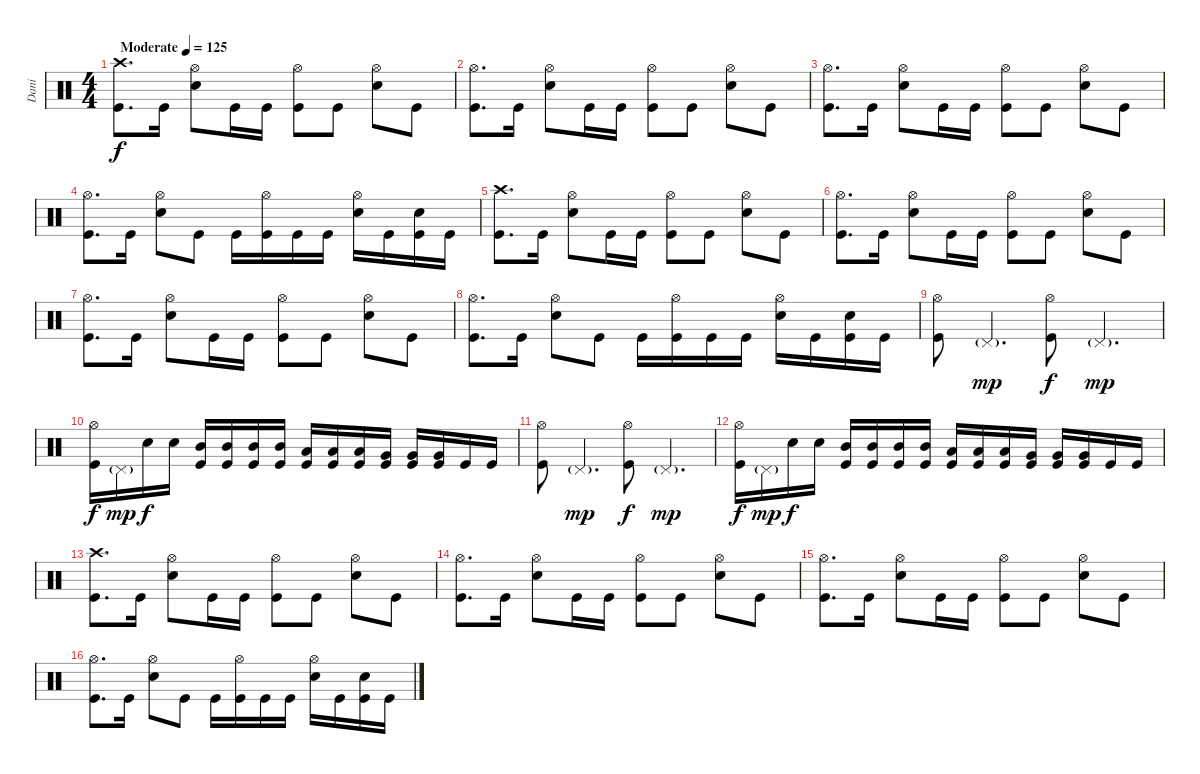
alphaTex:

\track ("Dani" "Dani") {instrument percussion}
\staff {score}
\articulation defaults
\ts (4 4)
\tempo (125 "Moderate")
\clef neutral
\ks c
("Kick (hit)" "Crash high (hit)").8{d dy f} "Kick (hit)".16 ("Snare (hit) 2" "Hi-Hat (open)").8 "Kick (hit)".16 "Kick (hit)".16 ("Kick (hit)" "Hi-Hat (open)").8 "Kick (hit)".8 ("Snare (hit) 2" "Hi-Hat (open)").8 "Kick (hit)".8 |
("Kick (hit)" "Hi-Hat (open)").8{d} "Kick (hit)".16 ("Snare (hit) 2" "Hi-Hat (open)").8 "Kick (hit)".16 "Kick (hit)".16 ("Kick (hit)" "Hi-Hat (open)").8 "Kick (hit)".8 ("Snare (hit) 2" "Hi-Hat (open)").8 "Kick (hit)".8 |
("Kick (hit)" "Hi-Hat (open)").8{d} "Kick (hit)".16 ("Snare (hit) 2" "Hi-Hat (open)").8 "Kick (hit)".16 "Kick (hit)".16 ("Kick (hit)" "Hi-Hat (open)").8 "Kick (hit)".8 ("Snare (hit) 2" "Hi-Hat (open)").8 "Kick (hit)".8 |
("Kick (hit)" "Hi-Hat (open)").8{d} "Kick (hit)".16 ("Snare (hit) 2" "Hi-Hat (open)").8 "Kick (hit)".8 "Kick (hit)".16 ("Kick (hit)" "Hi-Hat (open)").16 "Kick (hit)".16 "Kick (hit)".16 ("Snare (hit) 2" "Hi-Hat (open)").16 "Kick (hit)".16 ("Kick (hit)" "Snare (hit) 2").16 "Kick (hit)".16 |
("Kick (hit)" "Crash high (hit)").8{d} "Kick (hit)".16 ("Snare (hit) 2" "Hi-Hat (open)").8 "Kick (hit)".16 "Kick (hit)".16 ("Kick (hit)" "Hi-Hat (open)").8 "Kick (hit)".8 ("Snare (hit) 2" "Hi-Hat (open)").8 "Kick (hit)".8 |
("Kick (hit)" "Hi-Hat (open)").8{d} "Kick (hit)".16 ("Snare (hit) 2" "Hi-Hat (open)").8 "Kick (hit)".16 "Kick (hit)".16 ("Kick (hit)" "Hi-Hat (open)").8 "Kick (hit)".8 ("Snare (hit) 2" "Hi-Hat (open)").8 "Kick (hit)".8 |
("Kick (hit)" "Hi-Hat (open)").8{d} "Kick (hit)".16 ("Snare (hit) 2" "Hi-Hat (open)").8 "Kick (hit)".16 "Kick (hit)".16 ("Kick (hit)" "Hi-Hat (open)").8 "Kick (hit)".8 ("Snare (hit) 2" "Hi-Hat (open)").8 "Kick (hit)".8 |
("Kick (hit)" "Hi-Hat (open)").8{d} "Kick (hit)".16 ("Snare (hit) 2" "Hi-Hat (open)").8 "Kick (hit)".8 "Kick (hit)".16 ("Kick (hit)" "Hi-Hat (open)").16 "Kick (hit)".16 "Kick (hit)".16 ("Snare (hit) 2" "Hi-Hat (open)").16 "Kick (hit)".16 ("Kick (hit)" "Snare (hit) 2").16 "Kick (hit)".16 |
("Kick (hit)" "Hi-Hat (open)").8 "Pedal Hi-Hat (hit)"{g}.4{d dy mp} ("Kick (hit)" "Hi-Hat (open)").8{dy f} "Pedal Hi-Hat (hit)"{g}.4{d dy mp} |
("Kick (hit)" "Hi-Hat (open)").16{dy f} "Pedal Hi-Hat (hit)"{g}.16{dy mp} "Snare (hit) 2".16{dy f} "Snare (hit) 2".16 ("Mid Tom (hit)" "Kick (hit)").16 ("Mid Tom (hit)" "Kick (hit)").16 ("Mid Tom (hit)" "Kick (hit)").16 ("Mid Tom (hit)" "Kick (hit)").16 ("Low Tom (hit)" "Kick (hit)").16 ("Low Tom (hit)" "Kick (hit)").16 ("Low Tom (hit)" "Kick (hit)").16 ("Very Low Tom (hit)" "Kick (hit)").16 ("Very Low Tom (hit)" "Kick (hit)").16 ("Very Low Tom (hit)" "Kick (hit)").16 "Kick (hit)".16 "Kick (hit)".16 |
("Kick (hit)" "Hi-Hat (open)").8 "Pedal Hi-Hat (hit)"{g}.4{d dy mp} ("Kick (hit)" "Hi-Hat (open)").8{dy f} "Pedal Hi-Hat (hit)"{g}.4{d dy mp} |
("Kick (hit)" "Hi-Hat (open)").16{dy f} "Pedal Hi-Hat (hit)"{g}.16{dy mp} "Snare (hit) 2".16{dy f} "Snare (hit) 2".16 ("Mid Tom (hit)" "Kick (hit)").16 ("Mid Tom (hit)" "Kick (hit)").16 ("Mid Tom (hit)" "Kick (hit)").16 ("Mid Tom (hit)" "Kick (hit)").16 ("Low Tom (hit)" "Kick (hit)").16 ("Low Tom (hit)" "Kick (hit)").16 ("Low Tom (hit)" "Kick (hit)").16 ("Very Low Tom (hit)" "Kick (hit)").16 ("Very Low Tom (hit)" "Kick (hit)").16 ("Very Low Tom (hit)" "Kick (hit)").16 "Kick (hit)".16 "Kick (hit)".16 |
("Kick (hit)" "Crash high (hit)").8{d} "Kick (hit)".16 ("Snare (hit) 2" "Hi-Hat (open)").8 "Kick (hit)".16 "Kick (hit)".16 ("Kick (hit)" "Hi-Hat (open)").8 "Kick (hit)".8 ("Snare (hit) 2" "Hi-Hat (open)").8 "Kick (hit)".8 |
("Kick (hit)" "Hi-Hat (open)").8{d} "Kick (hit)".16 ("Snare (hit) 2" "Hi-Hat (open)").8 "Kick (hit)".16 "Kick (hit)".16 ("Kick (hit)" "Hi-Hat (open)").8 "Kick (hit)".8 ("Snare (hit) 2" "Hi-Hat (open)").8 "Kick (hit)".8 |
("Kick (hit)" "Hi-Hat (open)").8{d} "Kick (hit)".16 ("Snare (hit) 2" "Hi-Hat (open)").8 "Kick (hit)".16 "Kick (hit)".16 ("Kick (hit)" "Hi-Hat (open)").8 "Kick (hit)".8 ("Snare (hit) 2" "Hi-Hat (open)").8 "Kick (hit)".8 |
("Kick (hit)" "Hi-Hat (open)").8{d} "Kick (hit)".16 ("Snare (hit) 2" "Hi-Hat (open)").8 "Kick (hit)".8 "Kick (hit)".16 ("Kick (hit)" "Hi-Hat (open)").16 "Kick (hit)".16 "Kick (hit)".16 ("Snare (hit) 2" "Hi-Hat (open)").16 "Kick (hit)".16 ("Kick (hit)" "Snare (hit) 2").16 "Kick (hit)".16
